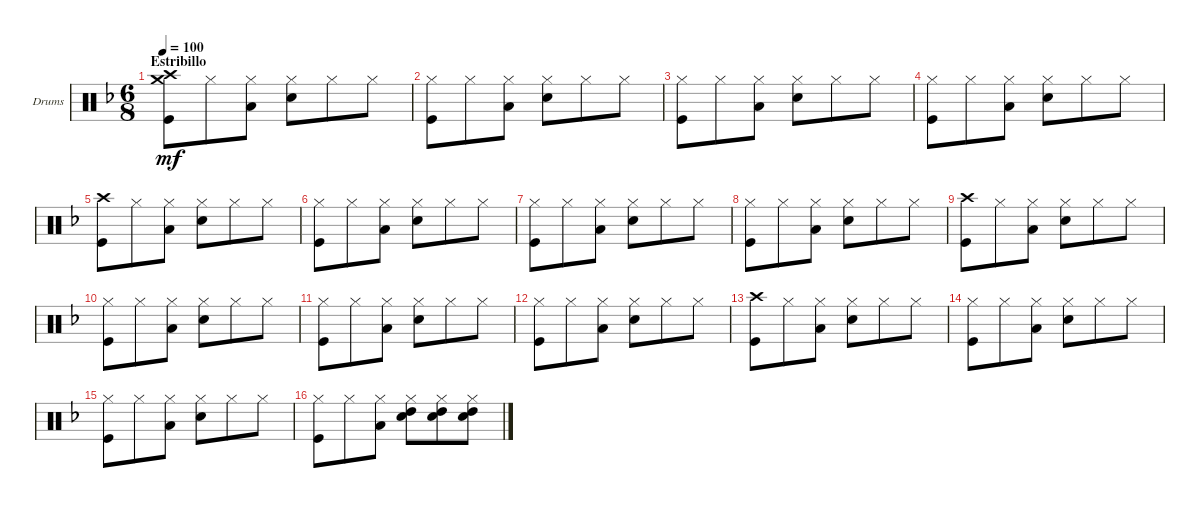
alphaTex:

\defaultSystemsLayout 4
\bracketExtendMode groupsimilarinstruments
\firstSystemTrackNameOrientation horizontal
\otherSystemsTrackNameOrientation horizontal
\track ("Drumkit" "Drums") {instrument percussion}
\staff {score}
\articulation defaults
\ts (6 8)
\section ("" "Estribillo")
\tempo 100
\clef neutral
\ks dminor
("Kick (hit)" "Crash high (hit)" "Crash medium (hit)").8{dy mf} "Hi-Hat (closed)".8 ("Hi-Hat (closed)" "Low Tom (hit)").8 ("Hi-Hat (closed)" "Snare (hit) 2").8 "Hi-Hat (closed)".8 "Hi-Hat (closed)".8 |
("Kick (hit)" "Hi-Hat (closed)").8 "Hi-Hat (closed)".8 ("Hi-Hat (closed)" "Low Tom (hit)").8 ("Hi-Hat (closed)" "Snare (hit) 2").8 "Hi-Hat (closed)".8 "Hi-Hat (closed)".8 |
("Kick (hit)" "Hi-Hat (closed)").8 "Hi-Hat (closed)".8 ("Hi-Hat (closed)" "Low Tom (hit)").8 ("Hi-Hat (closed)" "Snare (hit) 2").8 "Hi-Hat (closed)".8 "Hi-Hat (closed)".8 |
("Kick (hit)" "Hi-Hat (closed)").8 "Hi-Hat (closed)".8 ("Hi-Hat (closed)" "Low Tom (hit)").8 ("Hi-Hat (closed)" "Snare (hit) 2").8 "Hi-Hat (closed)".8 "Hi-Hat (closed)".8 |
("Kick (hit)" "Crash high (hit)").8 "Hi-Hat (closed)".8 ("Hi-Hat (closed)" "Low Tom (hit)").8 ("Hi-Hat (closed)" "Snare (hit) 2").8 "Hi-Hat (closed)".8 "Hi-Hat (closed)".8 |
("Kick (hit)" "Hi-Hat (closed)").8 "Hi-Hat (closed)".8 ("Hi-Hat (closed)" "Low Tom (hit)").8 ("Hi-Hat (closed)" "Snare (hit) 2").8 "Hi-Hat (closed)".8 "Hi-Hat (closed)".8 |
("Kick (hit)" "Hi-Hat (closed)").8 "Hi-Hat (closed)".8 ("Hi-Hat (closed)" "Low Tom (hit)").8 ("Hi-Hat (closed)" "Snare (hit) 2").8 "Hi-Hat (closed)".8 "Hi-Hat (closed)".8 |
("Kick (hit)" "Hi-Hat (closed)").8 "Hi-Hat (closed)".8 ("Hi-Hat (closed)" "Low Tom (hit)").8 ("Hi-Hat (closed)" "Snare (hit) 2").8 "Hi-Hat (closed)".8 "Hi-Hat (closed)".8 |
("Kick (hit)" "Crash high (hit)").8 "Hi-Hat (closed)".8 ("Hi-Hat (closed)" "Low Tom (hit)").8 ("Hi-Hat (closed)" "Snare (hit) 2").8 "Hi-Hat (closed)".8 "Hi-Hat (closed)".8 |
("Kick (hit)" "Hi-Hat (closed)").8 "Hi-Hat (closed)".8 ("Hi-Hat (closed)" "Low Tom (hit)").8 ("Hi-Hat (closed)" "Snare (hit) 2").8 "Hi-Hat (closed)".8 "Hi-Hat (closed)".8 |
("Kick (hit)" "Hi-Hat (closed)").8 "Hi-Hat (closed)".8 ("Hi-Hat (closed)" "Low Tom (hit)").8 ("Hi-Hat (closed)" "Snare (hit) 2").8 "Hi-Hat (closed)".8 "Hi-Hat (closed)".8 |
("Kick (hit)" "Hi-Hat (closed)").8 "Hi-Hat (closed)".8 ("Hi-Hat (closed)" "Low Tom (hit)").8 ("Hi-Hat (closed)" "Snare (hit) 2").8 "Hi-Hat (closed)".8 "Hi-Hat (closed)".8 |
("Kick (hit)" "Crash high (hit)").8 "Hi-Hat (closed)".8 ("Hi-Hat (closed)" "Low Tom (hit)").8 ("Hi-Hat (closed)" "Snare (hit) 2").8 "Hi-Hat (closed)".8 "Hi-Hat (closed)".8 |
("Kick (hit)" "Hi-Hat (closed)").8 "Hi-Hat (closed)".8 ("Hi-Hat (closed)" "Low Tom (hit)").8 ("Hi-Hat (closed)" "Snare (hit) 2").8 "Hi-Hat (closed)".8 "Hi-Hat (closed)".8 |
("Kick (hit)" "Hi-Hat (closed)").8 "Hi-Hat (closed)".8 ("Hi-Hat (closed)" "Low Tom (hit)").8 ("Hi-Hat (closed)" "Snare (hit) 2").8 "Hi-Hat (closed)".8 "Hi-Hat (closed)".8 |
("Kick (hit)" "Hi-Hat (closed)").8 "Hi-Hat (closed)".8 ("Hi-Hat (closed)" "Low Tom (hit)").8 ("Hi-Hat (closed)" "Snare (hit) 2" "High Tom (hit)").8 ("Hi-Hat (closed)" "Snare (hit) 2" "High Tom (hit)").8 ("Hi-Hat (closed)" "Snare (hit) 2" "High Tom (hit)").8
